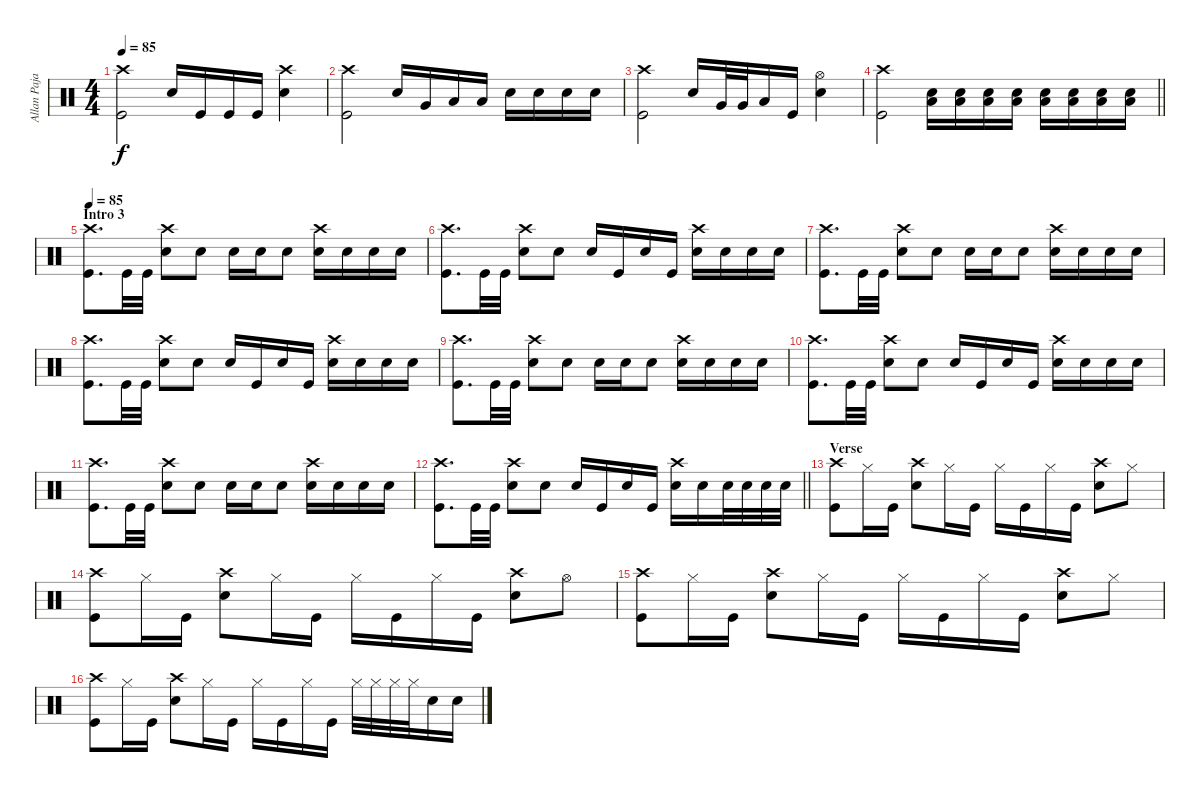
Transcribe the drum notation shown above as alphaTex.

\track ("Allan Pajarin (Drums)" "Allan Paja") {instrument percussion}
\staff {score}
\articulation defaults
\ts (4 4)
\tempo 85
\clef neutral
\ks c
("Crash high (hit)" "Kick (hit)").2{dy f} "Electric Snare (hit)".16 "Kick (hit)".16 "Kick (hit)".16 "Kick (hit)".16 ("Electric Snare (hit)" "Crash high (hit)").4 |
("Crash high (hit)" "Kick (hit)").2 "Electric Snare (hit)".16 "Very Low Tom (hit)".16 "Low Floor Tom (hit)".16 "Low Floor Tom (hit)".16 "Electric Snare (hit)".16 "Electric Snare (hit)".16 "Electric Snare (hit)".16 "Electric Snare (hit)".16 |
("Crash high (hit)" "Kick (hit)").2 "Electric Snare (hit)".16 "Very Low Tom (hit)".32 "Very Low Tom (hit)".32 "Low Floor Tom (hit)".16 "Kick (hit)".16 ("Electric Snare (hit)" "Hi-Hat (open)").4 |
\barLineRight lightlight
("Crash high (hit)" "Kick (hit)").2 ("Low Floor Tom (hit)" "Electric Snare (hit)").16{volume 16} ("Low Floor Tom (hit)" "Electric Snare (hit)").16 ("Low Floor Tom (hit)" "Electric Snare (hit)").16 ("Low Floor Tom (hit)" "Electric Snare (hit)").16 ("Low Floor Tom (hit)" "Electric Snare (hit)").16 ("Low Floor Tom (hit)" "Electric Snare (hit)").16 ("Low Floor Tom (hit)" "Electric Snare (hit)").16 ("Low Floor Tom (hit)" "Electric Snare (hit)").16 |
\section ("" "Intro 3")
\tempo 85
("Crash high (hit)" "Kick (hit)").8{d volume 13} "Kick (hit)".32 "Kick (hit)".32 ("Crash high (hit)" "Electric Snare (hit)").8 "Electric Snare (hit)".8 "Electric Snare (hit)".16 "Electric Snare (hit)".16 "Electric Snare (hit)".8 ("Electric Snare (hit)" "Crash high (hit)").16 "Electric Snare (hit)".16 "Electric Snare (hit)".16 "Electric Snare (hit)".16 |
("Crash high (hit)" "Kick (hit)").8{d} "Kick (hit)".32 "Kick (hit)".32 ("Crash high (hit)" "Electric Snare (hit)").8 "Electric Snare (hit)".8 "Electric Snare (hit)".16 "Kick (hit)".16 "Electric Snare (hit)".16 "Kick (hit)".16 ("Electric Snare (hit)" "Crash high (hit)").16 "Electric Snare (hit)".16 "Electric Snare (hit)".16 "Electric Snare (hit)".16 |
("Crash high (hit)" "Kick (hit)").8{d} "Kick (hit)".32 "Kick (hit)".32 ("Crash high (hit)" "Electric Snare (hit)").8 "Electric Snare (hit)".8 "Electric Snare (hit)".16 "Electric Snare (hit)".16 "Electric Snare (hit)".8 ("Electric Snare (hit)" "Crash high (hit)").16 "Electric Snare (hit)".16 "Electric Snare (hit)".16 "Electric Snare (hit)".16 |
("Crash high (hit)" "Kick (hit)").8{d} "Kick (hit)".32 "Kick (hit)".32 ("Crash high (hit)" "Electric Snare (hit)").8 "Electric Snare (hit)".8 "Electric Snare (hit)".16 "Kick (hit)".16 "Electric Snare (hit)".16 "Kick (hit)".16 ("Electric Snare (hit)" "Crash high (hit)").16 "Electric Snare (hit)".16 "Electric Snare (hit)".16 "Electric Snare (hit)".16 |
("Crash high (hit)" "Kick (hit)").8{d} "Kick (hit)".32 "Kick (hit)".32 ("Crash high (hit)" "Electric Snare (hit)").8 "Electric Snare (hit)".8 "Electric Snare (hit)".16 "Electric Snare (hit)".16 "Electric Snare (hit)".8 ("Electric Snare (hit)" "Crash high (hit)").16 "Electric Snare (hit)".16 "Electric Snare (hit)".16 "Electric Snare (hit)".16 |
("Crash high (hit)" "Kick (hit)").8{d} "Kick (hit)".32 "Kick (hit)".32 ("Crash high (hit)" "Electric Snare (hit)").8 "Electric Snare (hit)".8 "Electric Snare (hit)".16 "Kick (hit)".16 "Electric Snare (hit)".16 "Kick (hit)".16 ("Electric Snare (hit)" "Crash high (hit)").16 "Electric Snare (hit)".16 "Electric Snare (hit)".16 "Electric Snare (hit)".16 |
("Crash high (hit)" "Kick (hit)").8{d} "Kick (hit)".32 "Kick (hit)".32 ("Crash high (hit)" "Electric Snare (hit)").8 "Electric Snare (hit)".8 "Electric Snare (hit)".16 "Electric Snare (hit)".16 "Electric Snare (hit)".8 ("Electric Snare (hit)" "Crash high (hit)").16 "Electric Snare (hit)".16 "Electric Snare (hit)".16 "Electric Snare (hit)".16 |
\barLineRight lightlight
("Crash high (hit)" "Kick (hit)").8{d} "Kick (hit)".32 "Kick (hit)".32 ("Crash high (hit)" "Electric Snare (hit)").8 "Electric Snare (hit)".8 "Electric Snare (hit)".16 "Kick (hit)".16 "Electric Snare (hit)".16 "Kick (hit)".16 ("Electric Snare (hit)" "Crash high (hit)").16 "Electric Snare (hit)".16 "Electric Snare (hit)".32 "Electric Snare (hit)".32 "Electric Snare (hit)".32 "Electric Snare (hit)".32 |
\section ("" "Verse")
("Crash high (hit)" "Kick (hit)").8 "Hi-Hat (closed)".16 "Kick (hit)".16 ("Crash high (hit)" "Electric Snare (hit)").8 "Hi-Hat (closed)".16 "Kick (hit)".16 "Hi-Hat (closed)".16 "Kick (hit)".16 "Hi-Hat (closed)".16 "Kick (hit)".16 ("Crash high (hit)" "Electric Snare (hit)").8 "Hi-Hat (closed)".8 |
("Kick (hit)" "Crash high (hit)").8 "Hi-Hat (closed)".16 "Kick (hit)".16 ("Crash high (hit)" "Electric Snare (hit)").8 "Hi-Hat (closed)".16 "Kick (hit)".16 "Hi-Hat (closed)".16 "Kick (hit)".16 "Hi-Hat (closed)".16 "Kick (hit)".16 ("Crash high (hit)" "Electric Snare (hit)").8 "Hi-Hat (open)".8 |
("Crash high (hit)" "Kick (hit)").8 "Hi-Hat (closed)".16 "Kick (hit)".16 ("Crash high (hit)" "Electric Snare (hit)").8 "Hi-Hat (closed)".16 "Kick (hit)".16 "Hi-Hat (closed)".16 "Kick (hit)".16 "Hi-Hat (closed)".16 "Kick (hit)".16 ("Electric Snare (hit)" "Crash high (hit)").8 "Hi-Hat (closed)".8 |
("Crash high (hit)" "Kick (hit)").8 "Hi-Hat (closed)".16 "Kick (hit)".16 ("Crash high (hit)" "Electric Snare (hit)").8 "Hi-Hat (closed)".16 "Kick (hit)".16 "Hi-Hat (closed)".16 "Kick (hit)".16 "Hi-Hat (closed)".16 "Kick (hit)".16 "Hi-Hat (closed)".32 "Hi-Hat (closed)".32 "Hi-Hat (closed)".32 "Hi-Hat (closed)".32 "Electric Snare (hit)".16 "Electric Snare (hit)".16
